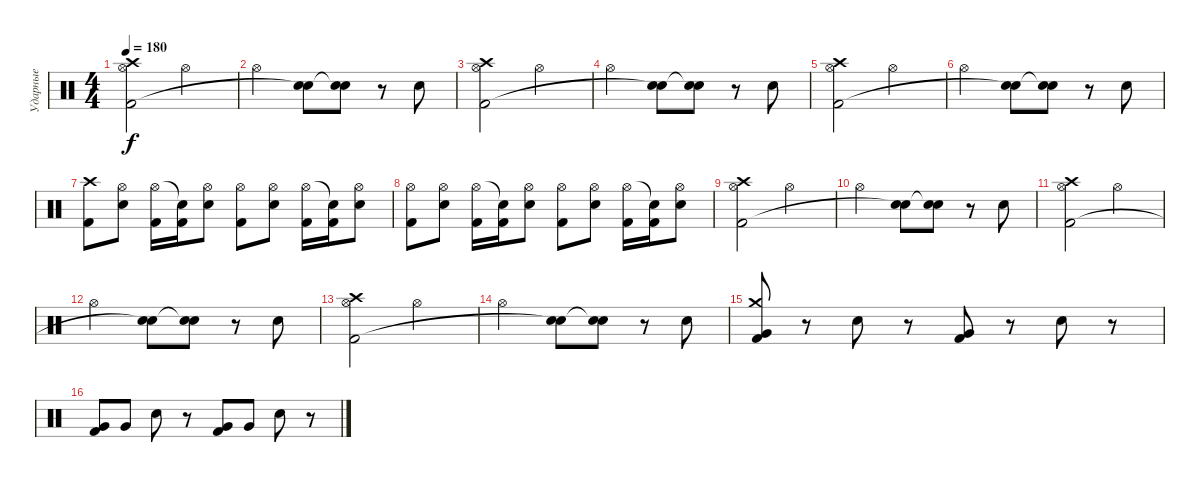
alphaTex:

\track ("Ударные" "Ударные") {instrument percussion}
\staff {score}
\articulation defaults
\ts (4 4)
\tempo 180
\clef neutral
\ks c
("Hi-Hat (open)" "Kick (hit) 2" "Crash high (hit)").2{dy f} "Hi-Hat (open)".2 |
"Hi-Hat (open)".2 ("Electric Snare (hit)" "Snare (hit)"{t}).8 ("Electric Snare (hit)" "Snare (hit)"{t}).8 r.8 "Electric Snare (hit)".8 |
("Hi-Hat (open)" "Kick (hit) 2" "Crash high (hit)").2 "Hi-Hat (open)".2 |
"Hi-Hat (open)".2 ("Electric Snare (hit)" "Snare (hit)"{t}).8 ("Electric Snare (hit)" "Snare (hit)"{t}).8 r.8 "Electric Snare (hit)".8 |
("Hi-Hat (open)" "Kick (hit) 2" "Crash high (hit)").2 "Hi-Hat (open)".2 |
"Hi-Hat (open)".2 ("Electric Snare (hit)" "Snare (hit)"{t}).8 ("Electric Snare (hit)" "Snare (hit)"{t}).8 r.8 "Electric Snare (hit)".8 |
("Crash high (hit)" "Kick (hit) 2").8 ("Hi-Hat (open)" "Snare (hit) 2").8 ("Hi-Hat (open)" "Kick (hit) 2").16 ("Snare (hit)"{t} "Kick (hit) 2").16 ("Hi-Hat (open)" "Snare (hit) 2").8 ("Hi-Hat (open)" "Kick (hit) 2").8 ("Hi-Hat (open)" "Snare (hit) 2").8 ("Hi-Hat (open)" "Kick (hit) 2").16 ("Snare (hit)"{t} "Kick (hit) 2").16 ("Hi-Hat (open)" "Snare (hit) 2").8 |
("Hi-Hat (open)" "Kick (hit) 2").8 ("Hi-Hat (open)" "Snare (hit) 2").8 ("Hi-Hat (open)" "Kick (hit) 2").16 ("Snare (hit)"{t} "Kick (hit) 2").16 ("Hi-Hat (open)" "Snare (hit) 2").8 ("Hi-Hat (open)" "Kick (hit) 2").8 ("Hi-Hat (open)" "Snare (hit) 2").8 ("Hi-Hat (open)" "Kick (hit) 2").16 ("Snare (hit)"{t} "Kick (hit) 2").16 ("Hi-Hat (open)" "Snare (hit) 2").8 |
("Hi-Hat (open)" "Kick (hit) 2" "Crash high (hit)").2 "Hi-Hat (open)".2 |
"Hi-Hat (open)".2 ("Electric Snare (hit)" "Snare (hit)"{t}).8 ("Electric Snare (hit)" "Snare (hit)"{t}).8 r.8 "Electric Snare (hit)".8 |
("Hi-Hat (open)" "Kick (hit) 2" "Crash high (hit)").2 "Hi-Hat (open)".2 |
"Hi-Hat (open)".2 ("Electric Snare (hit)" "Snare (hit)"{t}).8 ("Electric Snare (hit)" "Snare (hit)"{t}).8 r.8 "Electric Snare (hit)".8 |
("Hi-Hat (open)" "Kick (hit) 2" "Crash high (hit)").2 "Hi-Hat (open)".2 |
"Hi-Hat (open)".2 ("Electric Snare (hit)" "Snare (hit)"{t}).8 ("Electric Snare (hit)" "Snare (hit)"{t}).8 r.8 "Electric Snare (hit)".8 |
("Crash medium (hit)" "Very Low Tom (hit)" "Kick (hit) 2").8 r.8 "Electric Snare (hit)".8 r.8 ("Very Low Tom (hit)" "Kick (hit) 2").8 r.8 "Electric Snare (hit)".8 r.8 |
("Very Low Tom (hit)" "Kick (hit) 2").8 "Very Low Tom (hit)".8 "Electric Snare (hit)".8 r.8 ("Very Low Tom (hit)" "Kick (hit) 2").8 "Very Low Tom (hit)".8 "Electric Snare (hit)".8 r.8
